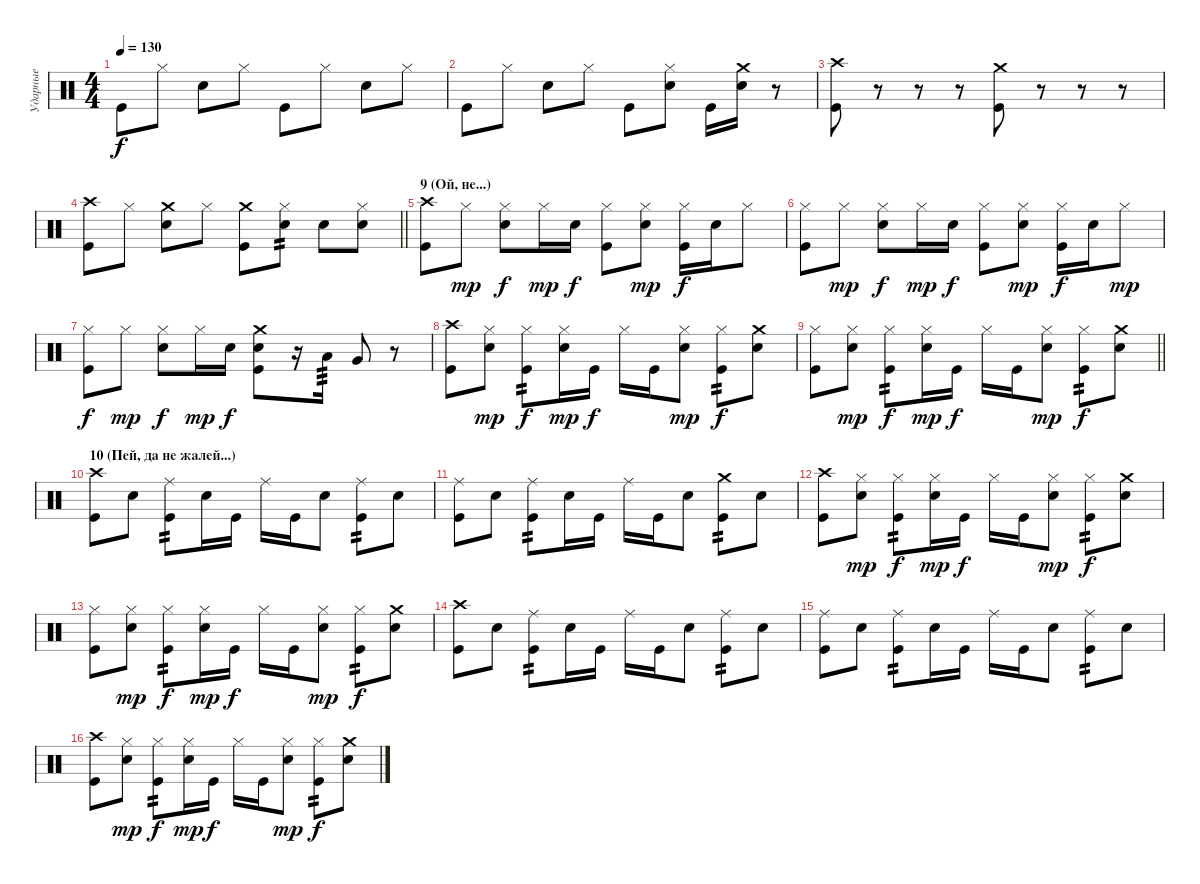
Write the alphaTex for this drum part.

\track ("Ударные" "Ударные") {instrument percussion}
\staff {score}
\articulation defaults
\ts (4 4)
\tempo 130
\clef neutral
\ks c "Kick (hit)".8{dy f} "Hi-Hat (closed)".8 "Snare (hit) 2".8 "Hi-Hat (closed)".8 "Kick (hit)".8 "Hi-Hat (closed)".8 "Snare (hit) 2".8 "Hi-Hat (closed)".8
|
"Kick (hit)".8 "Hi-Hat (closed)".8 "Snare (hit) 2".8 "Hi-Hat (closed)".8 "Kick (hit)".8 ("Hi-Hat (closed)" "Snare (hit) 2").8 "Kick (hit)".16 ("Crash medium (hit)" "Snare (hit) 2").16 r.8 |
("Crash high (hit)" "Kick (hit)").8 r.8 r.8 r.8 ("Crash medium (hit)" "Kick (hit)").8 r.8 r.8 r.8 |
\barLineRight lightlight
("Crash high (hit)" "Kick (hit)").8 "Hi-Hat (closed)".8 ("Crash medium (hit)" "Snare (hit) 2").8 "Hi-Hat (closed)".8 ("Crash medium (hit)" "Kick (hit)").8 ("Hi-Hat (closed)" "Snare (hit) 2").8{tp 2} "Snare (hit) 2".8 ("Hi-Hat (closed)" "Snare (hit) 2").8 |
\section ("" "9 (Ой, не...)")
("Crash high (hit)" "Kick (hit)").8 "Hi-Hat (closed)".8{dy mp} ("Hi-Hat (closed)" "Snare (hit) 2").8{dy f} "Hi-Hat (closed)".16{dy mp} "Snare (hit) 2".16{dy f} ("Hi-Hat (closed)" "Kick (hit)").8 ("Hi-Hat (closed)" "Snare (hit) 2").8{dy mp} ("Hi-Hat (closed)" "Kick (hit)").16{dy f} "Snare (hit) 2".16 "Hi-Hat (closed)".8 |
("Hi-Hat (closed)" "Kick (hit)").8 "Hi-Hat (closed)".8{dy mp} ("Hi-Hat (closed)" "Snare (hit) 2").8{dy f} "Hi-Hat (closed)".16{dy mp} "Snare (hit) 2".16{dy f} ("Hi-Hat (closed)" "Kick (hit)").8 ("Hi-Hat (closed)" "Snare (hit) 2").8{dy mp} ("Hi-Hat (closed)" "Kick (hit)").16{dy f} "Snare (hit) 2".16 "Hi-Hat (closed)".8{dy mp} |
("Hi-Hat (closed)" "Kick (hit)").8{dy f} "Hi-Hat (closed)".8{dy mp} ("Hi-Hat (closed)" "Snare (hit) 2").8{dy f} "Hi-Hat (closed)".16{dy mp} "Snare (hit) 2".16{dy f} ("Crash medium (hit)" "Snare (hit) 2" "Kick (hit)").8 r.16 "Low Tom (hit)".16{tp 3} "Very Low Tom (hit)".8 r.8 |
("Crash high (hit)" "Kick (hit)").8 ("Hi-Hat (closed)" "Snare (hit) 2").8{dy mp} ("Hi-Hat (closed)" "Kick (hit)").8{tp 2 dy f} ("Hi-Hat (closed)" "Snare (hit) 2").16{dy mp} "Kick (hit)".16{dy f} "Hi-Hat (closed)".16 "Kick (hit)".16 ("Hi-Hat (closed)" "Snare (hit) 2").8{dy mp} ("Hi-Hat (closed)" "Kick (hit)").8{tp 2 dy f} ("Crash medium (hit)" "Snare (hit) 2").8 |
\barLineRight lightlight
("Hi-Hat (closed)" "Kick (hit)").8 ("Hi-Hat (closed)" "Snare (hit) 2").8{dy mp} ("Hi-Hat (closed)" "Kick (hit)").8{tp 2 dy f} ("Hi-Hat (closed)" "Snare (hit) 2").16{dy mp} "Kick (hit)".16{dy f} "Hi-Hat (closed)".16 "Kick (hit)".16 ("Hi-Hat (closed)" "Snare (hit) 2").8{dy mp} ("Hi-Hat (closed)" "Kick (hit)").8{tp 2 dy f} ("Crash medium (hit)" "Snare (hit) 2").8 |
\section ("" "10 (Пей, да не жалей...)")
("Crash high (hit)" "Kick (hit)").8 "Snare (hit) 2".8 ("Ride (middle)" "Kick (hit)").8{tp 2} "Snare (hit) 2".16 "Kick (hit)".16 "Ride (middle)".16 "Kick (hit)".16 "Snare (hit) 2".8 ("Ride (middle)" "Kick (hit)").8{tp 2} "Snare (hit) 2".8 |
("Ride (middle)" "Kick (hit)").8 "Snare (hit) 2".8 ("Ride (middle)" "Kick (hit)").8{tp 2} "Snare (hit) 2".16 "Kick (hit)".16 "Ride (middle)".16 "Kick (hit)".16 "Snare (hit) 2".8 ("Crash medium (hit)" "Kick (hit)").8{tp 2} "Snare (hit) 2".8 |
("Crash high (hit)" "Kick (hit)").8 ("Hi-Hat (closed)" "Snare (hit) 2").8{dy mp} ("Hi-Hat (closed)" "Kick (hit)").8{tp 2 dy f} ("Hi-Hat (closed)" "Snare (hit) 2").16{dy mp} "Kick (hit)".16{dy f} "Hi-Hat (closed)".16 "Kick (hit)".16 ("Hi-Hat (closed)" "Snare (hit) 2").8{dy mp} ("Hi-Hat (closed)" "Kick (hit)").8{tp 2 dy f} ("Crash medium (hit)" "Snare (hit) 2").8 |
("Hi-Hat (closed)" "Kick (hit)").8 ("Hi-Hat (closed)" "Snare (hit) 2").8{dy mp} ("Hi-Hat (closed)" "Kick (hit)").8{tp 2 dy f} ("Hi-Hat (closed)" "Snare (hit) 2").16{dy mp} "Kick (hit)".16{dy f} "Hi-Hat (closed)".16 "Kick (hit)".16 ("Hi-Hat (closed)" "Snare (hit) 2").8{dy mp} ("Hi-Hat (closed)" "Kick (hit)").8{tp 2 dy f} ("Crash medium (hit)" "Snare (hit) 2").8 |
("Crash high (hit)" "Kick (hit)").8 "Snare (hit) 2".8 ("Ride (middle)" "Kick (hit)").8{tp 2} "Snare (hit) 2".16 "Kick (hit)".16 "Ride (middle)".16 "Kick (hit)".16 "Snare (hit) 2".8 ("Ride (middle)" "Kick (hit)").8{tp 2} "Snare (hit) 2".8 |
("Ride (middle)" "Kick (hit)").8 "Snare (hit) 2".8 ("Ride (middle)" "Kick (hit)").8{tp 2} "Snare (hit) 2".16 "Kick (hit)".16 "Ride (middle)".16 "Kick (hit)".16 "Snare (hit) 2".8 ("Ride (middle)" "Kick (hit)").8{tp 2} "Snare (hit) 2".8 |
("Crash high (hit)" "Kick (hit)").8 ("Hi-Hat (closed)" "Snare (hit) 2").8{dy mp} ("Hi-Hat (closed)" "Kick (hit)").8{tp 2 dy f} ("Hi-Hat (closed)" "Snare (hit) 2").16{dy mp} "Kick (hit)".16{dy f} "Hi-Hat (closed)".16 "Kick (hit)".16 ("Hi-Hat (closed)" "Snare (hit) 2").8{dy mp} ("Hi-Hat (closed)" "Kick (hit)").8{tp 2 dy f} ("Crash medium (hit)" "Snare (hit) 2").8
